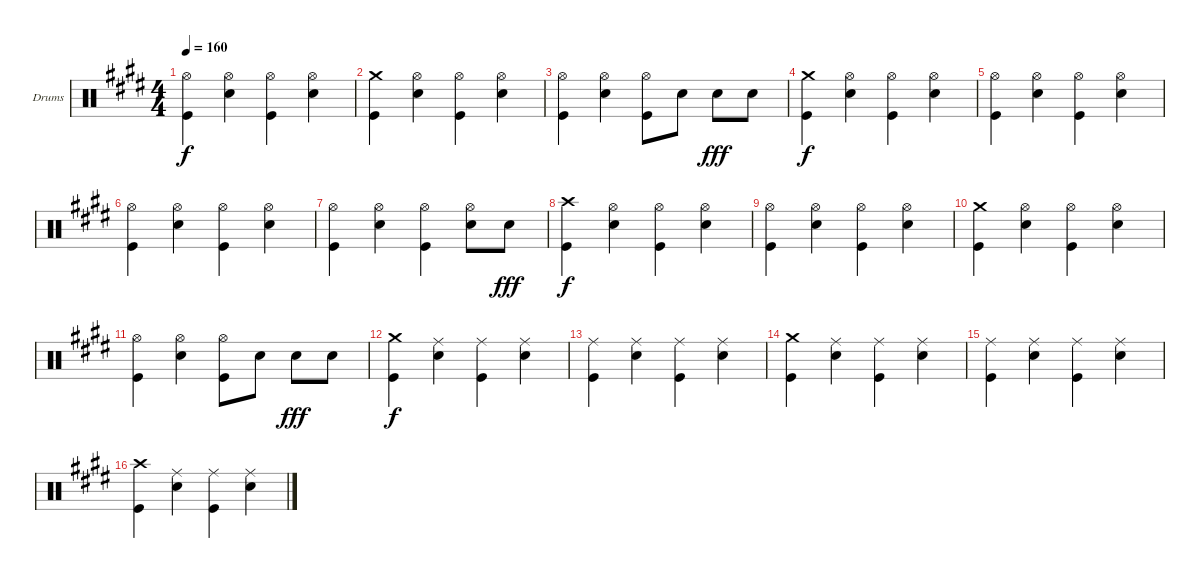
\bracketExtendMode groupsimilarinstruments
\firstSystemTrackNameOrientation horizontal
\otherSystemsTrackNameOrientation horizontal
\track ("Drumkit" "Drums") {instrument percussion}
\staff {score}
\articulation defaults
\ts (4 4)
\tempo 160
\clef neutral
\ks e
("Hi-Hat (open)" "Kick (hit)").4{dy f} ("Hi-Hat (open)" "Snare (hit) 2").4 ("Hi-Hat (open)" "Kick (hit)").4 ("Hi-Hat (open)" "Snare (hit) 2").4 |
("Crash medium (hit)" "Kick (hit)").4 ("Hi-Hat (open)" "Snare (hit) 2").4 ("Hi-Hat (open)" "Kick (hit)").4 ("Hi-Hat (open)" "Snare (hit) 2").4 |
("Hi-Hat (open)" "Kick (hit)").4 ("Hi-Hat (open)" "Snare (hit) 2").4 ("Hi-Hat (open)" "Kick (hit)").8 "Snare (hit) 2".8 "Snare (hit) 2".8{dy fff} "Snare (hit) 2".8 |
("Crash medium (hit)" "Kick (hit)").4{dy f} ("Hi-Hat (open)" "Snare (hit) 2").4 ("Hi-Hat (open)" "Kick (hit)").4 ("Hi-Hat (open)" "Snare (hit) 2").4 |
("Hi-Hat (open)" "Kick (hit)").4 ("Hi-Hat (open)" "Snare (hit) 2").4 ("Hi-Hat (open)" "Kick (hit)").4 ("Hi-Hat (open)" "Snare (hit) 2").4 |
("Hi-Hat (open)" "Kick (hit)").4 ("Hi-Hat (open)" "Snare (hit) 2").4 ("Hi-Hat (open)" "Kick (hit)").4 ("Hi-Hat (open)" "Snare (hit) 2").4 |
("Hi-Hat (open)" "Kick (hit)").4 ("Hi-Hat (open)" "Snare (hit) 2").4 ("Hi-Hat (open)" "Kick (hit)").4 ("Hi-Hat (open)" "Snare (hit) 2").8 "Snare (hit) 2".8{dy fff} |
("Crash high (hit)" "Kick (hit)").4{dy f} ("Hi-Hat (open)" "Snare (hit) 2").4 ("Hi-Hat (open)" "Kick (hit)").4 ("Hi-Hat (open)" "Snare (hit) 2").4 |
("Hi-Hat (open)" "Kick (hit)").4 ("Hi-Hat (open)" "Snare (hit) 2").4 ("Hi-Hat (open)" "Kick (hit)").4 ("Hi-Hat (open)" "Snare (hit) 2").4 |
("Crash medium (hit)" "Kick (hit)").4 ("Hi-Hat (open)" "Snare (hit) 2").4 ("Hi-Hat (open)" "Kick (hit)").4 ("Hi-Hat (open)" "Snare (hit) 2").4 |
("Hi-Hat (open)" "Kick (hit)").4 ("Hi-Hat (open)" "Snare (hit) 2").4 ("Hi-Hat (open)" "Kick (hit)").8 "Snare (hit) 2".8 "Snare (hit) 2".8{dy fff} "Snare (hit) 2".8 |
("Crash medium (hit)" "Kick (hit)").4{dy f} ("Ride (middle)" "Snare (hit) 2").4 ("Ride (middle)" "Kick (hit)").4 ("Ride (middle)" "Snare (hit) 2").4 |
("Ride (middle)" "Kick (hit)").4 ("Ride (middle)" "Snare (hit) 2").4 ("Ride (middle)" "Kick (hit)").4 ("Ride (middle)" "Snare (hit) 2").4 |
("Crash medium (hit)" "Kick (hit)").4 ("Ride (middle)" "Snare (hit) 2").4 ("Ride (middle)" "Kick (hit)").4 ("Ride (middle)" "Snare (hit) 2").4 |
("Ride (middle)" "Kick (hit)").4 ("Ride (middle)" "Snare (hit) 2").4 ("Ride (middle)" "Kick (hit)").4 ("Ride (middle)" "Snare (hit) 2").4 |
("Crash high (hit)" "Kick (hit)").4 ("Ride (middle)" "Snare (hit) 2").4 ("Ride (middle)" "Kick (hit)").4 ("Ride (middle)" "Snare (hit) 2").4
